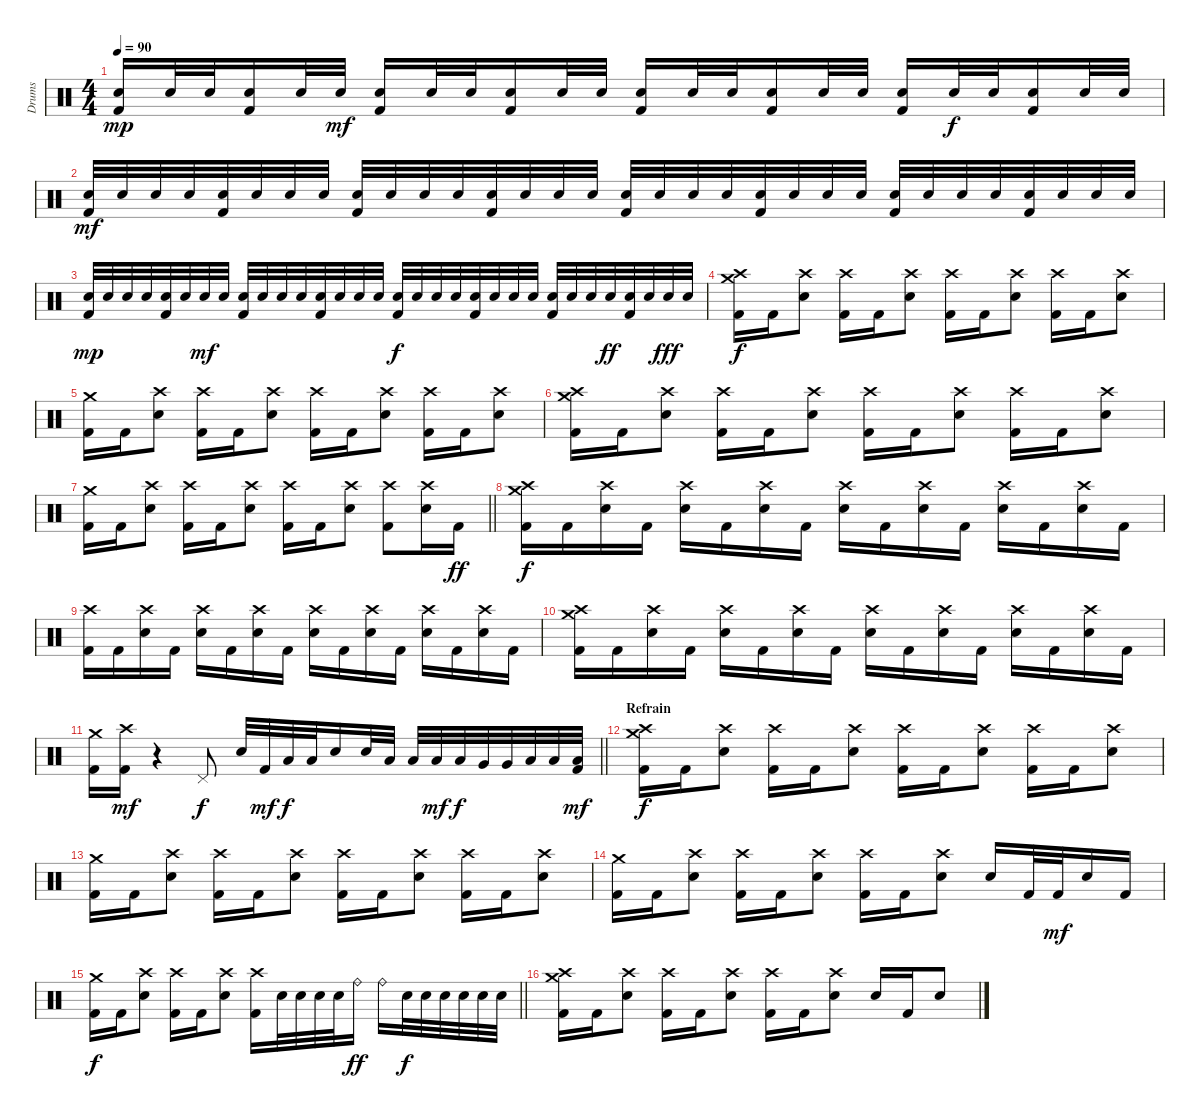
\track ("Drums" "Drums") {instrument percussion}
\staff {score}
\articulation defaults
\ts (4 4)
\tempo 90
\clef neutral
\ks c
("Electric Snare (hit)" "Kick (hit) 2").16{dy mp} "Electric Snare (hit)".32 "Electric Snare (hit)".32 ("Electric Snare (hit)" "Kick (hit) 2").16 "Electric Snare (hit)".32 "Electric Snare (hit)".32{dy mf} ("Electric Snare (hit)" "Kick (hit) 2").16 "Electric Snare (hit)".32 "Electric Snare (hit)".32 ("Electric Snare (hit)" "Kick (hit) 2").16 "Electric Snare (hit)".32 "Electric Snare (hit)".32 ("Electric Snare (hit)" "Kick (hit) 2").16 "Electric Snare (hit)".32 "Electric Snare (hit)".32 ("Electric Snare (hit)" "Kick (hit) 2").16 "Electric Snare (hit)".32 "Electric Snare (hit)".32 ("Electric Snare (hit)" "Kick (hit) 2").16 "Electric Snare (hit)".32{dy f} "Electric Snare (hit)".32 ("Electric Snare (hit)" "Kick (hit) 2").16 "Electric Snare (hit)".32 "Electric Snare (hit)".32 |
("Electric Snare (hit)" "Kick (hit) 2").32{dy mf} "Electric Snare (hit)".32 "Electric Snare (hit)".32 "Electric Snare (hit)".32 ("Electric Snare (hit)" "Kick (hit) 2").32 "Electric Snare (hit)".32 "Electric Snare (hit)".32 "Electric Snare (hit)".32 ("Electric Snare (hit)" "Kick (hit) 2").32 "Electric Snare (hit)".32 "Electric Snare (hit)".32 "Electric Snare (hit)".32 ("Electric Snare (hit)" "Kick (hit) 2").32 "Electric Snare (hit)".32 "Electric Snare (hit)".32 "Electric Snare (hit)".32 ("Electric Snare (hit)" "Kick (hit) 2").32 "Electric Snare (hit)".32 "Electric Snare (hit)".32 "Electric Snare (hit)".32 ("Electric Snare (hit)" "Kick (hit) 2").32 "Electric Snare (hit)".32 "Electric Snare (hit)".32 "Electric Snare (hit)".32 ("Electric Snare (hit)" "Kick (hit) 2").32 "Electric Snare (hit)".32 "Electric Snare (hit)".32 "Electric Snare (hit)".32 ("Electric Snare (hit)" "Kick (hit) 2").32 "Electric Snare (hit)".32 "Electric Snare (hit)".32 "Electric Snare (hit)".32 |
("Electric Snare (hit)" "Kick (hit) 2").32{dy mp} "Electric Snare (hit)".32 "Electric Snare (hit)".32 "Electric Snare (hit)".32 ("Electric Snare (hit)" "Kick (hit) 2").32 "Electric Snare (hit)".32 "Electric Snare (hit)".32{dy mf} "Electric Snare (hit)".32 ("Electric Snare (hit)" "Kick (hit) 2").32 "Electric Snare (hit)".32 "Electric Snare (hit)".32 "Electric Snare (hit)".32 ("Electric Snare (hit)" "Kick (hit) 2").32 "Electric Snare (hit)".32 "Electric Snare (hit)".32 "Electric Snare (hit)".32 ("Electric Snare (hit)" "Kick (hit) 2").32{dy f} "Electric Snare (hit)".32 "Electric Snare (hit)".32 "Electric Snare (hit)".32 ("Electric Snare (hit)" "Kick (hit) 2").32 "Electric Snare (hit)".32 "Electric Snare (hit)".32 "Electric Snare (hit)".32 ("Electric Snare (hit)" "Kick (hit) 2").32 "Electric Snare (hit)".32 "Electric Snare (hit)".32 "Electric Snare (hit)".32{dy ff} ("Electric Snare (hit)" "Kick (hit) 2").32 "Electric Snare (hit)".32 "Electric Snare (hit)".32{dy fff} "Electric Snare (hit)".32 |
("Crash high (hit)" "Crash medium (hit)" "Kick (hit) 2").16{dy f} "Kick (hit) 2".16 ("Crash high (hit)" "Electric Snare (hit)").8 ("Crash high (hit)" "Kick (hit) 2").16 "Kick (hit) 2".16 ("Crash high (hit)" "Electric Snare (hit)").8 ("Crash high (hit)" "Kick (hit) 2").16 "Kick (hit) 2".16 ("Crash high (hit)" "Electric Snare (hit)").8 ("Crash high (hit)" "Kick (hit) 2").16 "Kick (hit) 2".16 ("Crash high (hit)" "Electric Snare (hit)").8 |
("Crash medium (hit)" "Kick (hit) 2").16 "Kick (hit) 2".16 ("Crash high (hit)" "Electric Snare (hit)").8 ("Crash high (hit)" "Kick (hit) 2").16 "Kick (hit) 2".16 ("Crash high (hit)" "Electric Snare (hit)").8 ("Crash high (hit)" "Kick (hit) 2").16 "Kick (hit) 2".16 ("Crash high (hit)" "Electric Snare (hit)").8 ("Crash high (hit)" "Kick (hit) 2").16 "Kick (hit) 2".16 ("Crash high (hit)" "Electric Snare (hit)").8 |
("Crash high (hit)" "Crash medium (hit)" "Kick (hit) 2").16 "Kick (hit) 2".16 ("Crash high (hit)" "Electric Snare (hit)").8 ("Crash high (hit)" "Kick (hit) 2").16 "Kick (hit) 2".16 ("Crash high (hit)" "Electric Snare (hit)").8 ("Crash high (hit)" "Kick (hit) 2").16 "Kick (hit) 2".16 ("Crash high (hit)" "Electric Snare (hit)").8 ("Crash high (hit)" "Kick (hit) 2").16 "Kick (hit) 2".16 ("Crash high (hit)" "Electric Snare (hit)").8 |
\barLineRight lightlight
("Crash medium (hit)" "Kick (hit) 2").16 "Kick (hit) 2".16 ("Crash high (hit)" "Electric Snare (hit)").8 ("Crash high (hit)" "Kick (hit) 2").16 "Kick (hit) 2".16 ("Crash high (hit)" "Electric Snare (hit)").8 ("Crash high (hit)" "Kick (hit) 2").16 "Kick (hit) 2".16 ("Crash high (hit)" "Electric Snare (hit)").8 ("Crash high (hit)" "Kick (hit) 2").8 ("Crash high (hit)" "Electric Snare (hit)").16 "Kick (hit) 2".16{dy ff} |
("Crash high (hit)" "Crash medium (hit)" "Kick (hit) 2").16{dy f} "Kick (hit) 2".16 ("Crash high (hit)" "Electric Snare (hit)").16 "Kick (hit) 2".16 ("Crash high (hit)" "Electric Snare (hit)").16 "Kick (hit) 2".16 ("Crash high (hit)" "Electric Snare (hit)").16 "Kick (hit) 2".16 ("Crash high (hit)" "Electric Snare (hit)").16 "Kick (hit) 2".16 ("Crash high (hit)" "Electric Snare (hit)").16 "Kick (hit) 2".16 ("Crash high (hit)" "Electric Snare (hit)").16 "Kick (hit) 2".16 ("Crash high (hit)" "Electric Snare (hit)").16 "Kick (hit) 2".16 |
("Crash high (hit)" "Kick (hit) 2").16 "Kick (hit) 2".16 ("Crash high (hit)" "Electric Snare (hit)").16 "Kick (hit) 2".16 ("Crash high (hit)" "Electric Snare (hit)").16 "Kick (hit) 2".16 ("Crash high (hit)" "Electric Snare (hit)").16 "Kick (hit) 2".16 ("Crash high (hit)" "Electric Snare (hit)").16 "Kick (hit) 2".16 ("Crash high (hit)" "Electric Snare (hit)").16 "Kick (hit) 2".16 ("Crash high (hit)" "Electric Snare (hit)").16 "Kick (hit) 2".16 ("Crash high (hit)" "Electric Snare (hit)").16 "Kick (hit) 2".16 |
("Crash high (hit)" "Crash medium (hit)" "Kick (hit) 2").16 "Kick (hit) 2".16 ("Crash high (hit)" "Electric Snare (hit)").16 "Kick (hit) 2".16 ("Crash high (hit)" "Electric Snare (hit)").16 "Kick (hit) 2".16 ("Crash high (hit)" "Electric Snare (hit)").16 "Kick (hit) 2".16 ("Crash high (hit)" "Electric Snare (hit)").16 "Kick (hit) 2".16 ("Crash high (hit)" "Electric Snare (hit)").16 "Kick (hit) 2".16 ("Crash high (hit)" "Electric Snare (hit)").16 "Kick (hit) 2".16 ("Crash high (hit)" "Electric Snare (hit)").16 "Kick (hit) 2".16 |
\barLineRight lightlight
("Crash medium (hit)" "Kick (hit) 2").16 ("Crash high (hit)" "Kick (hit) 2").16{dy mf} r.4 "Pedal Hi-Hat (hit)".8{dy f} "Electric Snare (hit)".32 "Kick (hit) 2".32{dy mf} "Low Floor Tom (hit)".32{dy f} "Low Floor Tom (hit)".32 "Electric Snare (hit)".16 "Electric Snare (hit)".32 "Low Tom (hit)".32 "Low Tom (hit)".32 "Low Tom (hit)".32{dy mf} "Low Tom (hit)".32{dy f} "Very Low Tom (hit)".32 "Very Low Tom (hit)".32 "Low Floor Tom (hit)".32 "Low Floor Tom (hit)".32 ("Low Floor Tom (hit)" "Kick (hit) 2").32{dy mf} |
\section ("" "Refrain")
("Crash high (hit)" "Crash medium (hit)" "Kick (hit) 2").16{dy f} "Kick (hit) 2".16 ("Crash high (hit)" "Electric Snare (hit)").8 ("Crash high (hit)" "Kick (hit) 2").16 "Kick (hit) 2".16 ("Crash high (hit)" "Electric Snare (hit)").8 ("Crash high (hit)" "Kick (hit) 2").16 "Kick (hit) 2".16 ("Crash high (hit)" "Electric Snare (hit)").8 ("Crash high (hit)" "Kick (hit) 2").16 "Kick (hit) 2".16 ("Crash high (hit)" "Electric Snare (hit)").8 |
("Crash medium (hit)" "Kick (hit) 2").16 "Kick (hit) 2".16 ("Crash high (hit)" "Electric Snare (hit)").8 ("Crash high (hit)" "Kick (hit) 2").16 "Kick (hit) 2".16 ("Crash high (hit)" "Electric Snare (hit)").8 ("Crash high (hit)" "Kick (hit) 2").16 "Kick (hit) 2".16 ("Crash high (hit)" "Electric Snare (hit)").8 ("Crash high (hit)" "Kick (hit) 2").16 "Kick (hit) 2".16 ("Crash high (hit)" "Electric Snare (hit)").8 |
("Crash medium (hit)" "Kick (hit) 2").16 "Kick (hit) 2".16 ("Crash high (hit)" "Electric Snare (hit)").8 ("Crash high (hit)" "Kick (hit) 2").16 "Kick (hit) 2".16 ("Crash high (hit)" "Electric Snare (hit)").8 ("Crash high (hit)" "Kick (hit) 2").16 "Kick (hit) 2".16 ("Crash high (hit)" "Electric Snare (hit)").8 "Electric Snare (hit)".16 "Kick (hit) 2".32 "Kick (hit) 2".32{dy mf} "Electric Snare (hit)".16 "Kick (hit) 2".16 |
\barLineRight lightlight
("Crash medium (hit)" "Kick (hit) 2").16{dy f} "Kick (hit) 2".16 ("Crash high (hit)" "Electric Snare (hit)").8 ("Crash high (hit)" "Kick (hit) 2").16 "Kick (hit) 2".16 ("Crash high (hit)" "Electric Snare (hit)").8 ("Crash high (hit)" "Kick (hit) 2").16 "Electric Snare (hit)".32 "Electric Snare (hit)".32 "Electric Snare (hit)".32 "Electric Snare (hit)".32 "Ride (bell)".16{dy ff} "Ride (bell)".16 "Electric Snare (hit)".32{dy f} "Electric Snare (hit)".32 "Electric Snare (hit)".32 "Electric Snare (hit)".32 "Electric Snare (hit)".32 "Electric Snare (hit)".32 |
("Crash high (hit)" "Crash medium (hit)" "Kick (hit) 2").16 "Kick (hit) 2".16 ("Crash high (hit)" "Electric Snare (hit)").8 ("Crash high (hit)" "Kick (hit) 2").16 "Kick (hit) 2".16 ("Crash high (hit)" "Electric Snare (hit)").8 ("Crash high (hit)" "Kick (hit) 2").16 "Kick (hit) 2".16 ("Crash high (hit)" "Electric Snare (hit)").8 "Electric Snare (hit)".16 "Kick (hit) 2".16 "Electric Snare (hit)".8
